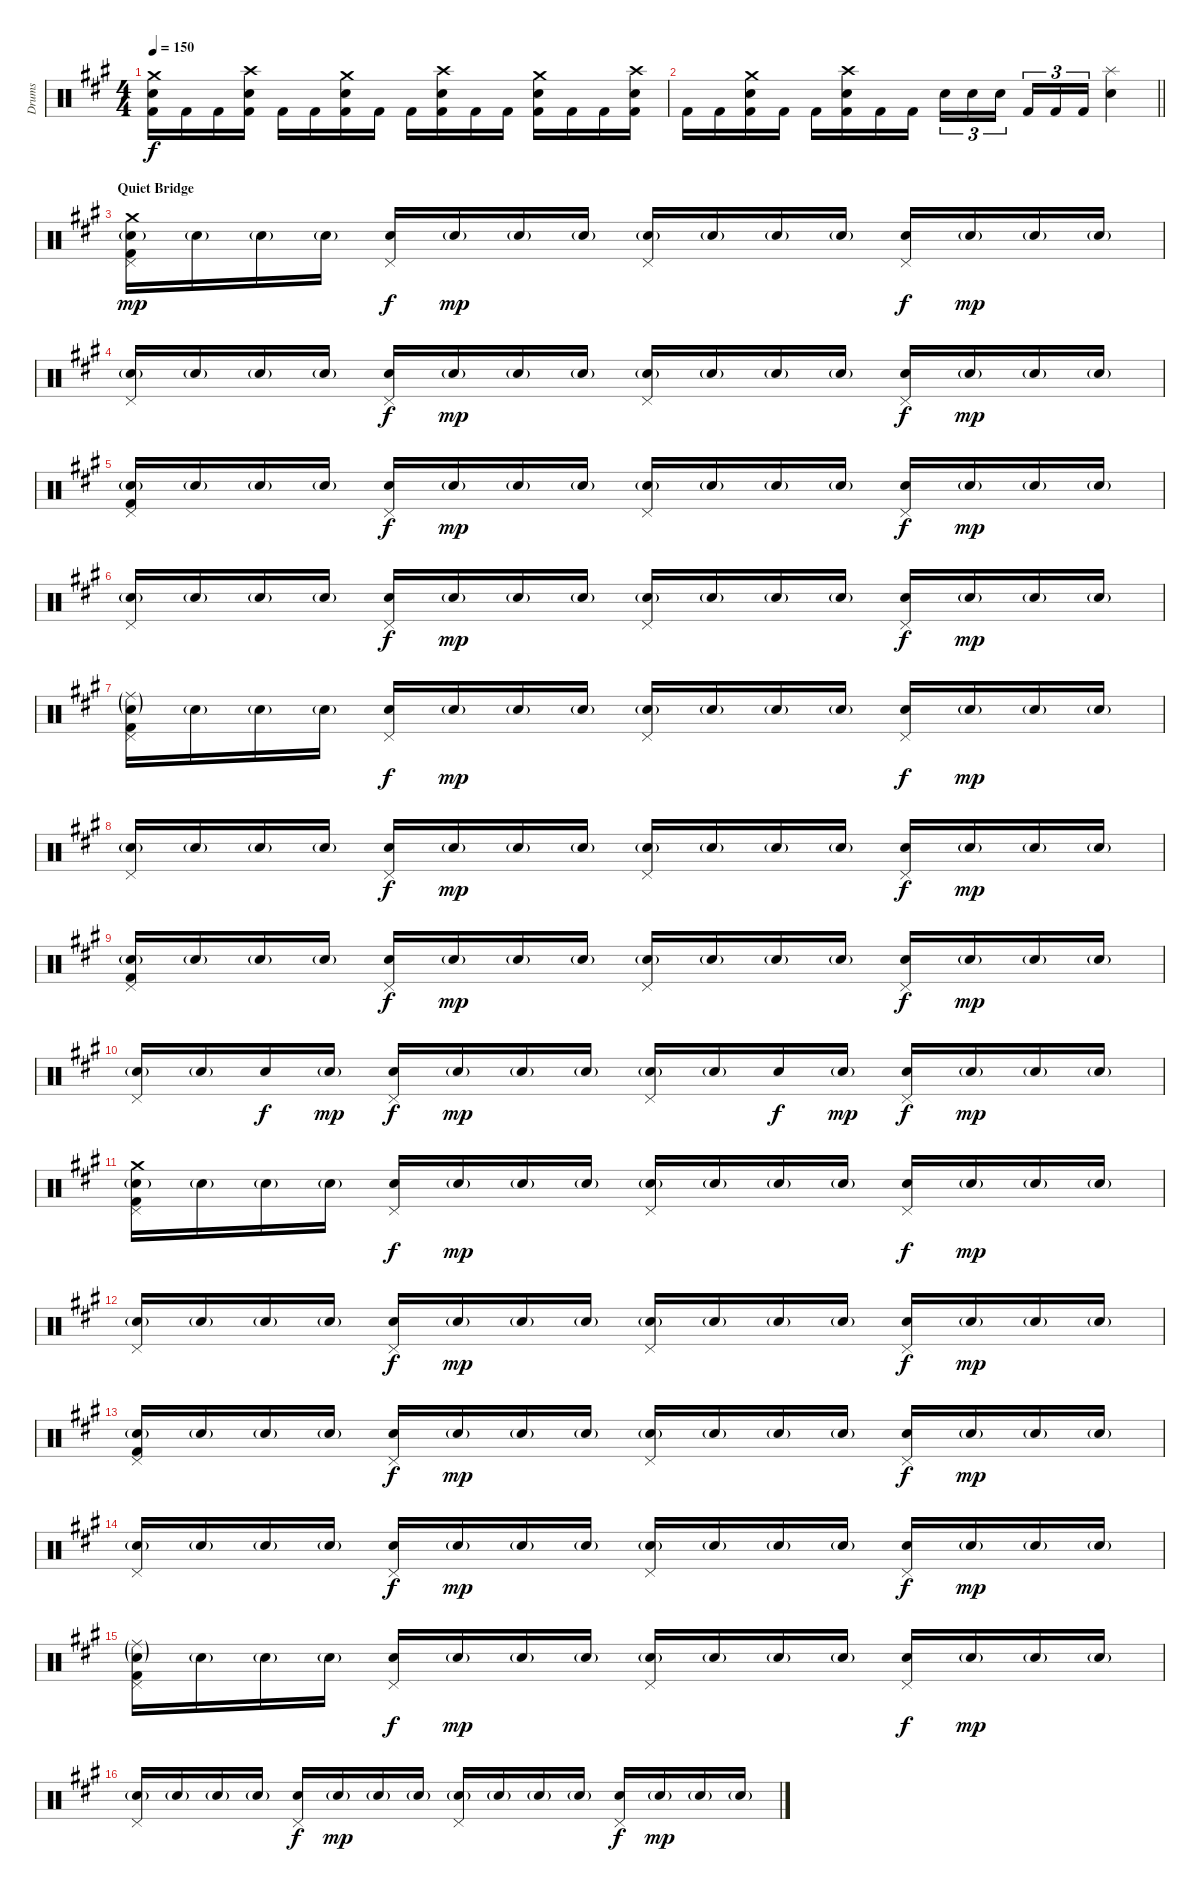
\track ("Drums" "Drums") {instrument percussion}
\staff {score}
\articulation defaults
\ts (4 4)
\tempo 150
\clef neutral
\ks f#minor
("Crash medium (hit)" "Snare (hit) 2" "Kick (hit) 2").16{dy f} "Kick (hit) 2".16 "Kick (hit) 2".16 ("Crash high (hit)" "Snare (hit) 2" "Kick (hit) 2").16 "Kick (hit) 2".16 "Kick (hit) 2".16 ("Crash medium (hit)" "Snare (hit) 2" "Kick (hit) 2").16 "Kick (hit) 2".16 "Kick (hit) 2".16 ("Crash high (hit)" "Snare (hit) 2" "Kick (hit) 2").16 "Kick (hit) 2".16 "Kick (hit) 2".16 ("Crash medium (hit)" "Snare (hit) 2" "Kick (hit) 2").16 "Kick (hit) 2".16 "Kick (hit) 2".16 ("Crash high (hit)" "Snare (hit) 2" "Kick (hit) 2").16 |
\barLineRight lightlight "Kick (hit) 2".16 "Kick (hit) 2".16
("Crash medium (hit)" "Snare (hit) 2" "Kick (hit) 2").16 "Kick (hit) 2".16 "Kick (hit) 2".16 ("Crash high (hit)" "Snare (hit) 2" "Kick (hit) 2").16 "Kick (hit) 2".16 "Kick (hit) 2".16 "Snare (hit) 2".16{tu (3 2)} "Snare (hit) 2".16{tu (3 2)} "Snare (hit) 2".16{tu (3 2) beam splitsecondary} "Kick (hit) 2".16{tu (3 2)} "Kick (hit) 2".16{tu (3 2)} "Kick (hit) 2".16{tu (3 2)} ("Splash (hit)" "Snare (hit) 2").4 |
\section ("" "Quiet Bridge")
("Crash medium (hit)" "Pedal Hi-Hat (hit)" "Snare (hit) 2"{g} "Kick (hit) 2").16{dy mp} "Snare (hit) 2"{g}.16 "Snare (hit) 2"{g}.16 "Snare (hit) 2"{g}.16 ("Pedal Hi-Hat (hit)" "Snare (hit) 2").16{dy f} "Snare (hit) 2"{g}.16{dy mp} "Snare (hit) 2"{g}.16 "Snare (hit) 2"{g}.16 ("Pedal Hi-Hat (hit)" "Snare (hit) 2"{g}).16 "Snare (hit) 2"{g}.16 "Snare (hit) 2"{g}.16 "Snare (hit) 2"{g}.16 ("Pedal Hi-Hat (hit)" "Snare (hit) 2").16{dy f} "Snare (hit) 2"{g}.16{dy mp} "Snare (hit) 2"{g}.16 "Snare (hit) 2"{g}.16 |
("Pedal Hi-Hat (hit)" "Snare (hit) 2"{g}).16 "Snare (hit) 2"{g}.16 "Snare (hit) 2"{g}.16 "Snare (hit) 2"{g}.16 ("Pedal Hi-Hat (hit)" "Snare (hit) 2").16{dy f} "Snare (hit) 2"{g}.16{dy mp} "Snare (hit) 2"{g}.16 "Snare (hit) 2"{g}.16 ("Pedal Hi-Hat (hit)" "Snare (hit) 2"{g}).16 "Snare (hit) 2"{g}.16 "Snare (hit) 2"{g}.16 "Snare (hit) 2"{g}.16 ("Pedal Hi-Hat (hit)" "Snare (hit) 2").16{dy f} "Snare (hit) 2"{g}.16{dy mp} "Snare (hit) 2"{g}.16 "Snare (hit) 2"{g}.16 |
("Pedal Hi-Hat (hit)" "Snare (hit) 2"{g} "Kick (hit) 2").16 "Snare (hit) 2"{g}.16 "Snare (hit) 2"{g}.16 "Snare (hit) 2"{g}.16 ("Pedal Hi-Hat (hit)" "Snare (hit) 2").16{dy f} "Snare (hit) 2"{g}.16{dy mp} "Snare (hit) 2"{g}.16 "Snare (hit) 2"{g}.16 ("Pedal Hi-Hat (hit)" "Snare (hit) 2"{g}).16 "Snare (hit) 2"{g}.16 "Snare (hit) 2"{g}.16 "Snare (hit) 2"{g}.16 ("Pedal Hi-Hat (hit)" "Snare (hit) 2").16{dy f} "Snare (hit) 2"{g}.16{dy mp} "Snare (hit) 2"{g}.16 "Snare (hit) 2"{g}.16 |
("Pedal Hi-Hat (hit)" "Snare (hit) 2"{g}).16 "Snare (hit) 2"{g}.16 "Snare (hit) 2"{g}.16 "Snare (hit) 2"{g}.16 ("Pedal Hi-Hat (hit)" "Snare (hit) 2").16{dy f} "Snare (hit) 2"{g}.16{dy mp} "Snare (hit) 2"{g}.16 "Snare (hit) 2"{g}.16 ("Pedal Hi-Hat (hit)" "Snare (hit) 2"{g}).16 "Snare (hit) 2"{g}.16 "Snare (hit) 2"{g}.16 "Snare (hit) 2"{g}.16 ("Pedal Hi-Hat (hit)" "Snare (hit) 2").16{dy f} "Snare (hit) 2"{g}.16{dy mp} "Snare (hit) 2"{g}.16 "Snare (hit) 2"{g}.16 |
("Ride (middle)"{g} "Pedal Hi-Hat (hit)" "Snare (hit) 2"{g} "Kick (hit) 2").16 "Snare (hit) 2"{g}.16 "Snare (hit) 2"{g}.16 "Snare (hit) 2"{g}.16 ("Pedal Hi-Hat (hit)" "Snare (hit) 2").16{dy f} "Snare (hit) 2"{g}.16{dy mp} "Snare (hit) 2"{g}.16 "Snare (hit) 2"{g}.16 ("Pedal Hi-Hat (hit)" "Snare (hit) 2"{g}).16 "Snare (hit) 2"{g}.16 "Snare (hit) 2"{g}.16 "Snare (hit) 2"{g}.16 ("Pedal Hi-Hat (hit)" "Snare (hit) 2").16{dy f} "Snare (hit) 2"{g}.16{dy mp} "Snare (hit) 2"{g}.16 "Snare (hit) 2"{g}.16 |
("Pedal Hi-Hat (hit)" "Snare (hit) 2"{g}).16 "Snare (hit) 2"{g}.16 "Snare (hit) 2"{g}.16 "Snare (hit) 2"{g}.16 ("Pedal Hi-Hat (hit)" "Snare (hit) 2").16{dy f} "Snare (hit) 2"{g}.16{dy mp} "Snare (hit) 2"{g}.16 "Snare (hit) 2"{g}.16 ("Pedal Hi-Hat (hit)" "Snare (hit) 2"{g}).16 "Snare (hit) 2"{g}.16 "Snare (hit) 2"{g}.16 "Snare (hit) 2"{g}.16 ("Pedal Hi-Hat (hit)" "Snare (hit) 2").16{dy f} "Snare (hit) 2"{g}.16{dy mp} "Snare (hit) 2"{g}.16 "Snare (hit) 2"{g}.16 |
("Pedal Hi-Hat (hit)" "Snare (hit) 2"{g} "Kick (hit) 2").16 "Snare (hit) 2"{g}.16 "Snare (hit) 2"{g}.16 "Snare (hit) 2"{g}.16 ("Pedal Hi-Hat (hit)" "Snare (hit) 2").16{dy f} "Snare (hit) 2"{g}.16{dy mp} "Snare (hit) 2"{g}.16 "Snare (hit) 2"{g}.16 ("Pedal Hi-Hat (hit)" "Snare (hit) 2"{g}).16 "Snare (hit) 2"{g}.16 "Snare (hit) 2"{g}.16 "Snare (hit) 2"{g}.16 ("Pedal Hi-Hat (hit)" "Snare (hit) 2").16{dy f} "Snare (hit) 2"{g}.16{dy mp} "Snare (hit) 2"{g}.16 "Snare (hit) 2"{g}.16 |
("Pedal Hi-Hat (hit)" "Snare (hit) 2"{g}).16 "Snare (hit) 2"{g}.16 "Snare (hit) 2".16{dy f} "Snare (hit) 2"{g}.16{dy mp} ("Pedal Hi-Hat (hit)" "Snare (hit) 2").16{dy f} "Snare (hit) 2"{g}.16{dy mp} "Snare (hit) 2"{g}.16 "Snare (hit) 2"{g}.16 ("Pedal Hi-Hat (hit)" "Snare (hit) 2"{g}).16 "Snare (hit) 2"{g}.16 "Snare (hit) 2".16{dy f} "Snare (hit) 2"{g}.16{dy mp} ("Pedal Hi-Hat (hit)" "Snare (hit) 2").16{dy f} "Snare (hit) 2"{g}.16{dy mp} "Snare (hit) 2"{g}.16 "Snare (hit) 2"{g}.16 |
("Crash medium (hit)" "Pedal Hi-Hat (hit)" "Snare (hit) 2"{g} "Kick (hit) 2").16 "Snare (hit) 2"{g}.16 "Snare (hit) 2"{g}.16 "Snare (hit) 2"{g}.16 ("Pedal Hi-Hat (hit)" "Snare (hit) 2").16{dy f} "Snare (hit) 2"{g}.16{dy mp} "Snare (hit) 2"{g}.16 "Snare (hit) 2"{g}.16 ("Pedal Hi-Hat (hit)" "Snare (hit) 2"{g}).16 "Snare (hit) 2"{g}.16 "Snare (hit) 2"{g}.16 "Snare (hit) 2"{g}.16 ("Pedal Hi-Hat (hit)" "Snare (hit) 2").16{dy f} "Snare (hit) 2"{g}.16{dy mp} "Snare (hit) 2"{g}.16 "Snare (hit) 2"{g}.16 |
("Pedal Hi-Hat (hit)" "Snare (hit) 2"{g}).16 "Snare (hit) 2"{g}.16 "Snare (hit) 2"{g}.16 "Snare (hit) 2"{g}.16 ("Pedal Hi-Hat (hit)" "Snare (hit) 2").16{dy f} "Snare (hit) 2"{g}.16{dy mp} "Snare (hit) 2"{g}.16 "Snare (hit) 2"{g}.16 ("Pedal Hi-Hat (hit)" "Snare (hit) 2"{g}).16 "Snare (hit) 2"{g}.16 "Snare (hit) 2"{g}.16 "Snare (hit) 2"{g}.16 ("Pedal Hi-Hat (hit)" "Snare (hit) 2").16{dy f} "Snare (hit) 2"{g}.16{dy mp} "Snare (hit) 2"{g}.16 "Snare (hit) 2"{g}.16 |
("Pedal Hi-Hat (hit)" "Snare (hit) 2"{g} "Kick (hit) 2").16 "Snare (hit) 2"{g}.16 "Snare (hit) 2"{g}.16 "Snare (hit) 2"{g}.16 ("Pedal Hi-Hat (hit)" "Snare (hit) 2").16{dy f} "Snare (hit) 2"{g}.16{dy mp} "Snare (hit) 2"{g}.16 "Snare (hit) 2"{g}.16 ("Pedal Hi-Hat (hit)" "Snare (hit) 2"{g}).16 "Snare (hit) 2"{g}.16 "Snare (hit) 2"{g}.16 "Snare (hit) 2"{g}.16 ("Pedal Hi-Hat (hit)" "Snare (hit) 2").16{dy f} "Snare (hit) 2"{g}.16{dy mp} "Snare (hit) 2"{g}.16 "Snare (hit) 2"{g}.16 |
("Pedal Hi-Hat (hit)" "Snare (hit) 2"{g}).16 "Snare (hit) 2"{g}.16 "Snare (hit) 2"{g}.16 "Snare (hit) 2"{g}.16 ("Pedal Hi-Hat (hit)" "Snare (hit) 2").16{dy f} "Snare (hit) 2"{g}.16{dy mp} "Snare (hit) 2"{g}.16 "Snare (hit) 2"{g}.16 ("Pedal Hi-Hat (hit)" "Snare (hit) 2"{g}).16 "Snare (hit) 2"{g}.16 "Snare (hit) 2"{g}.16 "Snare (hit) 2"{g}.16 ("Pedal Hi-Hat (hit)" "Snare (hit) 2").16{dy f} "Snare (hit) 2"{g}.16{dy mp} "Snare (hit) 2"{g}.16 "Snare (hit) 2"{g}.16 |
("Ride (middle)"{g} "Pedal Hi-Hat (hit)" "Snare (hit) 2"{g} "Kick (hit) 2").16 "Snare (hit) 2"{g}.16 "Snare (hit) 2"{g}.16 "Snare (hit) 2"{g}.16 ("Pedal Hi-Hat (hit)" "Snare (hit) 2").16{dy f} "Snare (hit) 2"{g}.16{dy mp} "Snare (hit) 2"{g}.16 "Snare (hit) 2"{g}.16 ("Pedal Hi-Hat (hit)" "Snare (hit) 2"{g}).16 "Snare (hit) 2"{g}.16 "Snare (hit) 2"{g}.16 "Snare (hit) 2"{g}.16 ("Pedal Hi-Hat (hit)" "Snare (hit) 2").16{dy f} "Snare (hit) 2"{g}.16{dy mp} "Snare (hit) 2"{g}.16 "Snare (hit) 2"{g}.16 |
("Pedal Hi-Hat (hit)" "Snare (hit) 2"{g}).16 "Snare (hit) 2"{g}.16 "Snare (hit) 2"{g}.16 "Snare (hit) 2"{g}.16 ("Pedal Hi-Hat (hit)" "Snare (hit) 2").16{dy f} "Snare (hit) 2"{g}.16{dy mp} "Snare (hit) 2"{g}.16 "Snare (hit) 2"{g}.16 ("Pedal Hi-Hat (hit)" "Snare (hit) 2"{g}).16 "Snare (hit) 2"{g}.16 "Snare (hit) 2"{g}.16 "Snare (hit) 2"{g}.16 ("Pedal Hi-Hat (hit)" "Snare (hit) 2").16{dy f} "Snare (hit) 2"{g}.16{dy mp} "Snare (hit) 2"{g}.16 "Snare (hit) 2"{g}.16
